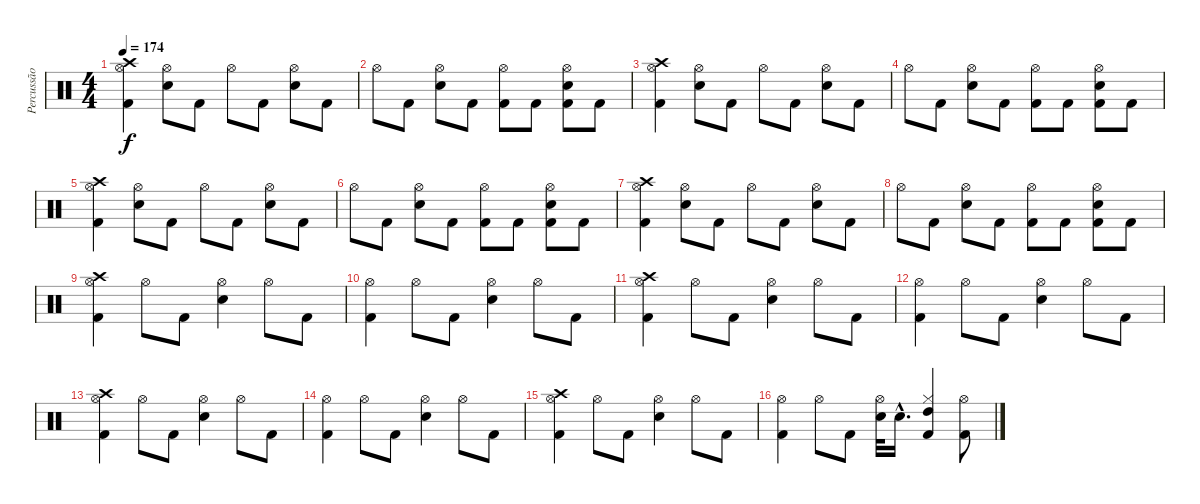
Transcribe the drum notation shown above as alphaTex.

\track ("Percussão" "Percussão") {instrument percussion}
\staff {score}
\articulation defaults
\ts (4 4)
\tempo 174
\clef neutral
\ks c
("Crash high (hit)" "Hi-Hat (open)" "Kick (hit) 2").4{dy f} ("Hi-Hat (open)" "Electric Snare (hit)").8 "Kick (hit) 2".8 "Hi-Hat (open)".8 "Kick (hit) 2".8 ("Hi-Hat (open)" "Electric Snare (hit)").8 "Kick (hit) 2".8 |
"Hi-Hat (open)".8 "Kick (hit) 2".8 ("Hi-Hat (open)" "Electric Snare (hit)").8 "Kick (hit) 2".8 ("Hi-Hat (open)" "Kick (hit) 2").8 "Kick (hit) 2".8 ("Hi-Hat (open)" "Electric Snare (hit)" "Kick (hit) 2").8 "Kick (hit) 2".8 |
("Crash high (hit)" "Hi-Hat (open)" "Kick (hit) 2").4 ("Hi-Hat (open)" "Electric Snare (hit)").8 "Kick (hit) 2".8 "Hi-Hat (open)".8 "Kick (hit) 2".8 ("Hi-Hat (open)" "Electric Snare (hit)").8 "Kick (hit) 2".8 |
"Hi-Hat (open)".8 "Kick (hit) 2".8 ("Hi-Hat (open)" "Electric Snare (hit)").8 "Kick (hit) 2".8 ("Hi-Hat (open)" "Kick (hit) 2").8 "Kick (hit) 2".8 ("Hi-Hat (open)" "Electric Snare (hit)" "Kick (hit) 2").8 "Kick (hit) 2".8 |
("Crash high (hit)" "Hi-Hat (open)" "Kick (hit) 2").4 ("Hi-Hat (open)" "Electric Snare (hit)").8 "Kick (hit) 2".8 "Hi-Hat (open)".8 "Kick (hit) 2".8 ("Hi-Hat (open)" "Electric Snare (hit)").8 "Kick (hit) 2".8 |
"Hi-Hat (open)".8 "Kick (hit) 2".8 ("Hi-Hat (open)" "Electric Snare (hit)").8 "Kick (hit) 2".8 ("Hi-Hat (open)" "Kick (hit) 2").8 "Kick (hit) 2".8 ("Hi-Hat (open)" "Electric Snare (hit)" "Kick (hit) 2").8 "Kick (hit) 2".8 |
("Crash high (hit)" "Hi-Hat (open)" "Kick (hit) 2").4 ("Hi-Hat (open)" "Electric Snare (hit)").8 "Kick (hit) 2".8 "Hi-Hat (open)".8 "Kick (hit) 2".8 ("Hi-Hat (open)" "Electric Snare (hit)").8 "Kick (hit) 2".8 |
"Hi-Hat (open)".8 "Kick (hit) 2".8 ("Hi-Hat (open)" "Electric Snare (hit)").8 "Kick (hit) 2".8 ("Hi-Hat (open)" "Kick (hit) 2").8 "Kick (hit) 2".8 ("Hi-Hat (open)" "Electric Snare (hit)" "Kick (hit) 2").8 "Kick (hit) 2".8 |
("Crash high (hit)" "Hi-Hat (open)" "Kick (hit) 2").4 "Hi-Hat (open)".8 "Kick (hit) 2".8 ("Hi-Hat (open)" "Electric Snare (hit)").4 "Hi-Hat (open)".8 "Kick (hit) 2".8 |
("Hi-Hat (open)" "Kick (hit) 2").4 "Hi-Hat (open)".8 "Kick (hit) 2".8 ("Hi-Hat (open)" "Electric Snare (hit)").4 "Hi-Hat (open)".8 "Kick (hit) 2".8 |
("Crash high (hit)" "Hi-Hat (open)" "Kick (hit) 2").4 "Hi-Hat (open)".8 "Kick (hit) 2".8 ("Hi-Hat (open)" "Electric Snare (hit)").4 "Hi-Hat (open)".8 "Kick (hit) 2".8 |
("Hi-Hat (open)" "Kick (hit) 2").4 "Hi-Hat (open)".8 "Kick (hit) 2".8 ("Hi-Hat (open)" "Electric Snare (hit)").4 "Hi-Hat (open)".8 "Kick (hit) 2".8 |
("Crash high (hit)" "Hi-Hat (open)" "Kick (hit) 2").4 "Hi-Hat (open)".8 "Kick (hit) 2".8 ("Hi-Hat (open)" "Electric Snare (hit)").4 "Hi-Hat (open)".8 "Kick (hit) 2".8 |
("Hi-Hat (open)" "Kick (hit) 2").4 "Hi-Hat (open)".8 "Kick (hit) 2".8 ("Hi-Hat (open)" "Electric Snare (hit)").4 "Hi-Hat (open)".8 "Kick (hit) 2".8 |
("Crash high (hit)" "Hi-Hat (open)" "Kick (hit) 2").4 "Hi-Hat (open)".8 "Kick (hit) 2".8 ("Hi-Hat (open)" "Electric Snare (hit)").4 "Hi-Hat (open)".8 "Kick (hit) 2".8 |
("Hi-Hat (open)" "Kick (hit) 2").4 "Hi-Hat (open)".8 "Kick (hit) 2".8 ("Hi-Hat (open)" "Electric Snare (hit)").32 "Electric Snare (hit)"{hac}.16{d} ("Hi-Hat (closed)" "High Tom (hit)" "Kick (hit) 2").4 ("Hi-Hat (open)" "Kick (hit) 2").8
